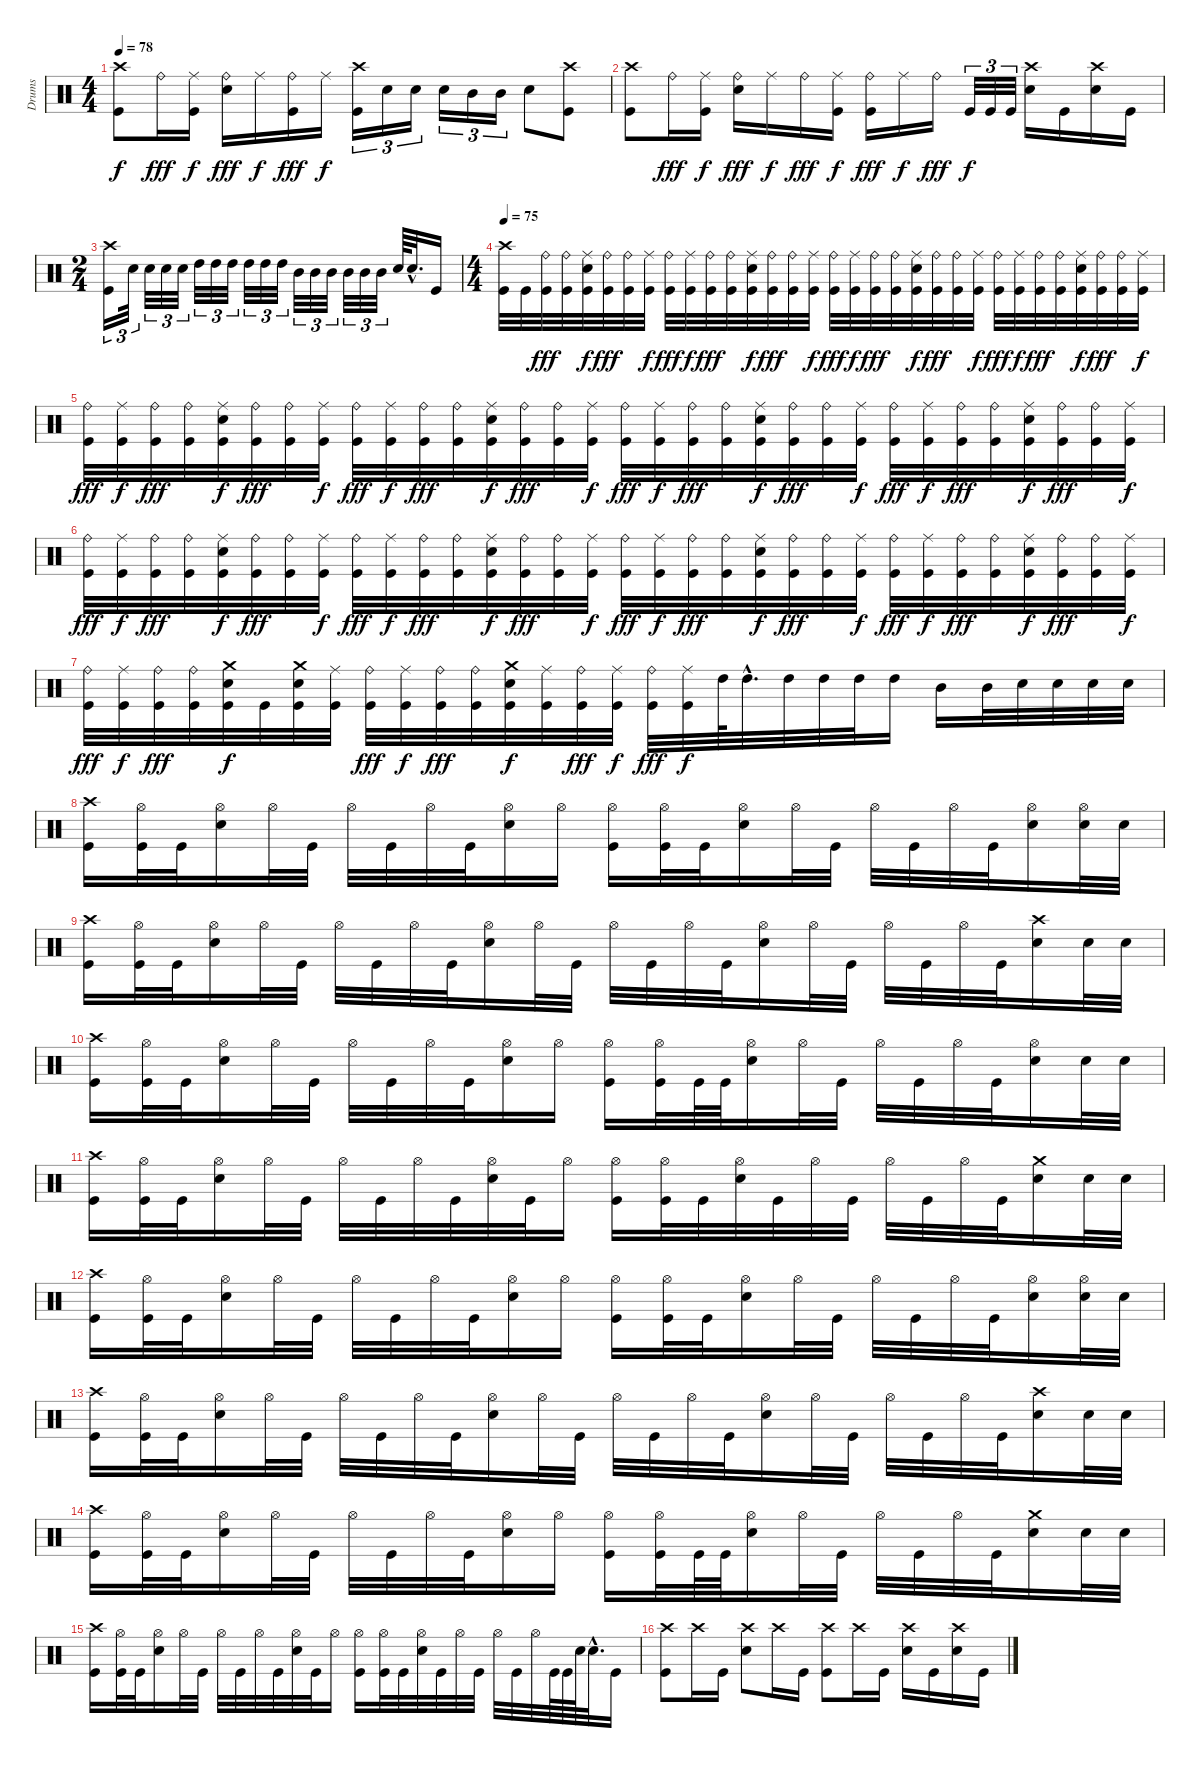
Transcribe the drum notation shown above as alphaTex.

\track ("Drums" "Drums") {instrument percussion}
\staff {score}
\articulation defaults
\ts (4 4)
\tempo 78
\clef neutral
\ks c
("Crash high (hit)" "Kick (hit)").8{dy f} "Ride (bell)".16{dy fff} ("Ride (middle)" "Kick (hit)").16{dy f} ("Ride (bell)" "Electric Snare (hit)").16{dy fff} "Ride (middle)".16{dy f} ("Ride (bell)" "Kick (hit)").16{dy fff} "Ride (middle)".16{dy f} ("Crash high (hit)" "Kick (hit)").16{tu (3 2)} "Electric Snare (hit)".16{tu (3 2)} "Electric Snare (hit)".16{tu (3 2)} "Electric Snare (hit)".16{tu (3 2)} "Mid Tom (hit)".16{tu (3 2)} "Mid Tom (hit)".16{tu (3 2)} "Electric Snare (hit)".8 ("Crash high (hit)" "Kick (hit)").8 |
("Crash high (hit)" "Kick (hit)").8 "Ride (bell)".16{dy fff} ("Ride (middle)" "Kick (hit)").16{dy f} ("Ride (bell)" "Electric Snare (hit)").16{dy fff} "Ride (middle)".16{dy f} "Ride (bell)".16{dy fff} ("Ride (middle)" "Kick (hit)").16{dy f} ("Ride (bell)" "Kick (hit)").16{dy fff} "Ride (middle)".16{dy f} "Ride (bell)".16{dy fff} "Kick (hit)".32{tu (3 2) dy f} "Kick (hit)".32{tu (3 2)} "Kick (hit)".32{tu (3 2)} ("Crash high (hit)" "Electric Snare (hit)").16 "Kick (hit)".16 ("Crash high (hit)" "Electric Snare (hit)").16 "Kick (hit)".16 |
\ts (2 4)
("Crash high (hit)" "Kick (hit)").16{tu (3 2)} "Electric Snare (hit)".32{tu (3 2)} "Electric Snare (hit)".32{tu (3 2)} "Electric Snare (hit)".32{tu (3 2)} "Electric Snare (hit)".32{tu (3 2)} "High Tom (hit)".32{tu (3 2)} "High Tom (hit)".32{tu (3 2)} "High Tom (hit)".32{tu (3 2)} "High Tom (hit)".32{tu (3 2)} "High Tom (hit)".32{tu (3 2)} "High Tom (hit)".32{tu (3 2)} "Mid Tom (hit)".32{tu (3 2)} "Mid Tom (hit)".32{tu (3 2)} "Mid Tom (hit)".32{tu (3 2)} "Mid Tom (hit)".32{tu (3 2)} "Mid Tom (hit)".32{tu (3 2)} "Mid Tom (hit)".32{tu (3 2)} "Electric Snare (hit)".64 "Electric Snare (hit)"{hac}.32{d} "Kick (hit)".16 |
\ts (4 4)
\tempo 75
("Crash high (hit)" "Kick (hit)").32 "Kick (hit)".32 ("Ride (bell)" "Kick (hit)").32{dy fff} ("Ride (bell)" "Kick (hit)").32 ("Ride (middle)" "Electric Snare (hit)" "Kick (hit)").32{dy f} ("Ride (bell)" "Kick (hit)").32{dy fff} ("Ride (bell)" "Kick (hit)").32 ("Ride (middle)" "Kick (hit)").32{dy f} ("Ride (bell)" "Kick (hit)").32{dy fff} ("Ride (middle)" "Kick (hit)").32{dy f} ("Ride (bell)" "Kick (hit)").32{dy fff} ("Ride (bell)" "Kick (hit)").32 ("Ride (middle)" "Electric Snare (hit)" "Kick (hit)").32{dy f} ("Ride (bell)" "Kick (hit)").32{dy fff} ("Ride (bell)" "Kick (hit)").32 ("Ride (middle)" "Kick (hit)").32{dy f} ("Ride (bell)" "Kick (hit)").32{dy fff} ("Ride (middle)" "Kick (hit)").32{dy f} ("Ride (bell)" "Kick (hit)").32{dy fff} ("Ride (bell)" "Kick (hit)").32 ("Ride (middle)" "Electric Snare (hit)" "Kick (hit)").32{dy f} ("Ride (bell)" "Kick (hit)").32{dy fff} ("Ride (bell)" "Kick (hit)").32 ("Ride (middle)" "Kick (hit)").32{dy f} ("Ride (bell)" "Kick (hit)").32{dy fff} ("Ride (middle)" "Kick (hit)").32{dy f} ("Ride (bell)" "Kick (hit)").32{dy fff} ("Ride (bell)" "Kick (hit)").32 ("Ride (middle)" "Electric Snare (hit)" "Kick (hit)").32{dy f} ("Ride (bell)" "Kick (hit)").32{dy fff} ("Ride (bell)" "Kick (hit)").32 ("Ride (middle)" "Kick (hit)").32{dy f} |
("Ride (bell)" "Kick (hit)").32{dy fff} ("Ride (middle)" "Kick (hit)").32{dy f} ("Ride (bell)" "Kick (hit)").32{dy fff} ("Ride (bell)" "Kick (hit)").32 ("Ride (middle)" "Electric Snare (hit)" "Kick (hit)").32{dy f} ("Ride (bell)" "Kick (hit)").32{dy fff} ("Ride (bell)" "Kick (hit)").32 ("Ride (middle)" "Kick (hit)").32{dy f} ("Ride (bell)" "Kick (hit)").32{dy fff} ("Ride (middle)" "Kick (hit)").32{dy f} ("Ride (bell)" "Kick (hit)").32{dy fff} ("Ride (bell)" "Kick (hit)").32 ("Ride (middle)" "Electric Snare (hit)" "Kick (hit)").32{dy f} ("Ride (bell)" "Kick (hit)").32{dy fff} ("Ride (bell)" "Kick (hit)").32 ("Ride (middle)" "Kick (hit)").32{dy f} ("Ride (bell)" "Kick (hit)").32{dy fff} ("Ride (middle)" "Kick (hit)").32{dy f} ("Ride (bell)" "Kick (hit)").32{dy fff} ("Ride (bell)" "Kick (hit)").32 ("Ride (middle)" "Electric Snare (hit)" "Kick (hit)").32{dy f} ("Ride (bell)" "Kick (hit)").32{dy fff} ("Ride (bell)" "Kick (hit)").32 ("Ride (middle)" "Kick (hit)").32{dy f} ("Ride (bell)" "Kick (hit)").32{dy fff} ("Ride (middle)" "Kick (hit)").32{dy f} ("Ride (bell)" "Kick (hit)").32{dy fff} ("Ride (bell)" "Kick (hit)").32 ("Ride (middle)" "Electric Snare (hit)" "Kick (hit)").32{dy f} ("Ride (bell)" "Kick (hit)").32{dy fff} ("Ride (bell)" "Kick (hit)").32 ("Ride (middle)" "Kick (hit)").32{dy f} |
("Ride (bell)" "Kick (hit)").32{dy fff} ("Ride (middle)" "Kick (hit)").32{dy f} ("Ride (bell)" "Kick (hit)").32{dy fff} ("Ride (bell)" "Kick (hit)").32 ("Ride (middle)" "Electric Snare (hit)" "Kick (hit)").32{dy f} ("Ride (bell)" "Kick (hit)").32{dy fff} ("Ride (bell)" "Kick (hit)").32 ("Ride (middle)" "Kick (hit)").32{dy f} ("Ride (bell)" "Kick (hit)").32{dy fff} ("Ride (middle)" "Kick (hit)").32{dy f} ("Ride (bell)" "Kick (hit)").32{dy fff} ("Ride (bell)" "Kick (hit)").32 ("Ride (middle)" "Electric Snare (hit)" "Kick (hit)").32{dy f} ("Ride (bell)" "Kick (hit)").32{dy fff} ("Ride (bell)" "Kick (hit)").32 ("Ride (middle)" "Kick (hit)").32{dy f} ("Ride (bell)" "Kick (hit)").32{dy fff} ("Ride (middle)" "Kick (hit)").32{dy f} ("Ride (bell)" "Kick (hit)").32{dy fff} ("Ride (bell)" "Kick (hit)").32 ("Ride (middle)" "Electric Snare (hit)" "Kick (hit)").32{dy f} ("Ride (bell)" "Kick (hit)").32{dy fff} ("Ride (bell)" "Kick (hit)").32 ("Ride (middle)" "Kick (hit)").32{dy f} ("Ride (bell)" "Kick (hit)").32{dy fff} ("Ride (middle)" "Kick (hit)").32{dy f} ("Ride (bell)" "Kick (hit)").32{dy fff} ("Ride (bell)" "Kick (hit)").32 ("Ride (middle)" "Electric Snare (hit)" "Kick (hit)").32{dy f} ("Ride (bell)" "Kick (hit)").32{dy fff} ("Ride (bell)" "Kick (hit)").32 ("Ride (middle)" "Kick (hit)").32{dy f} |
("Ride (bell)" "Kick (hit)").32{dy fff} ("Ride (middle)" "Kick (hit)").32{dy f} ("Ride (bell)" "Kick (hit)").32{dy fff} ("Ride (bell)" "Kick (hit)").32 ("Crash medium (hit)" "Electric Snare (hit)" "Kick (hit)").32{dy f} "Kick (hit)".32 ("Crash medium (hit)" "Electric Snare (hit)" "Kick (hit)").32 ("Ride (middle)" "Kick (hit)").32 ("Ride (bell)" "Kick (hit)").32{dy fff} ("Ride (middle)" "Kick (hit)").32{dy f} ("Ride (bell)" "Kick (hit)").32{dy fff} ("Ride (bell)" "Kick (hit)").32 ("Crash medium (hit)" "Electric Snare (hit)" "Kick (hit)").32{dy f} ("Ride (middle)" "Kick (hit)").32 ("Ride (bell)" "Kick (hit)").32{dy fff} ("Ride (middle)" "Kick (hit)").32{dy f} ("Ride (bell)" "Kick (hit)").32{dy fff} ("Ride (middle)" "Kick (hit)").32{dy f} "High Tom (hit)".64 "High Tom (hit)"{hac}.32{d} "High Tom (hit)".32 "High Tom (hit)".32 "High Tom (hit)".32 "High Tom (hit)".16 "Mid Tom (hit)".16 "Mid Tom (hit)".32 "Electric Snare (hit)".32 "Electric Snare (hit)".32 "Electric Snare (hit)".32 "Electric Snare (hit)".32 |
("Crash high (hit)" "Kick (hit)").16 ("Hi-Hat (open)" "Kick (hit)").32 "Kick (hit)".32 ("Hi-Hat (open)" "Electric Snare (hit)").16 "Hi-Hat (open)".32 "Kick (hit)".32 "Hi-Hat (open)".32 "Kick (hit)".32 "Hi-Hat (open)".32 "Kick (hit)".32 ("Hi-Hat (open)" "Electric Snare (hit)").16 "Hi-Hat (open)".16 ("Hi-Hat (open)" "Kick (hit)").16 ("Hi-Hat (open)" "Kick (hit)").32 "Kick (hit)".32 ("Hi-Hat (open)" "Electric Snare (hit)").16 "Hi-Hat (open)".32 "Kick (hit)".32 "Hi-Hat (open)".32 "Kick (hit)".32 "Hi-Hat (open)".32 "Kick (hit)".32 ("Hi-Hat (open)" "Electric Snare (hit)").16 ("Hi-Hat (open)" "Electric Snare (hit)").32 "Electric Snare (hit)".32 |
("Crash high (hit)" "Kick (hit)").16 ("Hi-Hat (open)" "Kick (hit)").32 "Kick (hit)".32 ("Hi-Hat (open)" "Electric Snare (hit)").16 "Hi-Hat (open)".32 "Kick (hit)".32 "Hi-Hat (open)".32 "Kick (hit)".32 "Hi-Hat (open)".32 "Kick (hit)".32 ("Hi-Hat (open)" "Electric Snare (hit)").16 "Hi-Hat (open)".32 "Kick (hit)".32 "Hi-Hat (open)".32 "Kick (hit)".32 "Hi-Hat (open)".32 "Kick (hit)".32 ("Hi-Hat (open)" "Electric Snare (hit)").16 "Hi-Hat (open)".32 "Kick (hit)".32 "Hi-Hat (open)".32 "Kick (hit)".32 "Hi-Hat (open)".32 "Kick (hit)".32 ("Crash high (hit)" "Electric Snare (hit)").16 "Electric Snare (hit)".32 "Electric Snare (hit)".32 |
("Crash high (hit)" "Kick (hit)").16 ("Hi-Hat (open)" "Kick (hit)").32 "Kick (hit)".32 ("Hi-Hat (open)" "Electric Snare (hit)").16 "Hi-Hat (open)".32 "Kick (hit)".32 "Hi-Hat (open)".32 "Kick (hit)".32 "Hi-Hat (open)".32 "Kick (hit)".32 ("Hi-Hat (open)" "Electric Snare (hit)").16 "Hi-Hat (open)".16 ("Hi-Hat (open)" "Kick (hit)").16 ("Hi-Hat (open)" "Kick (hit)").32 "Kick (hit)".64 "Kick (hit)".64 ("Hi-Hat (open)" "Electric Snare (hit)").16 "Hi-Hat (open)".32 "Kick (hit)".32 "Hi-Hat (open)".32 "Kick (hit)".32 "Hi-Hat (open)".32 "Kick (hit)".32 ("Hi-Hat (open)" "Electric Snare (hit)").16 "Electric Snare (hit)".32 "Electric Snare (hit)".32 |
("Crash high (hit)" "Kick (hit)").16 ("Hi-Hat (open)" "Kick (hit)").32 "Kick (hit)".32 ("Hi-Hat (open)" "Electric Snare (hit)").16 "Hi-Hat (open)".32 "Kick (hit)".32 "Hi-Hat (open)".32 "Kick (hit)".32 "Hi-Hat (open)".32 "Kick (hit)".32 ("Hi-Hat (open)" "Electric Snare (hit)").32 "Kick (hit)".32 "Hi-Hat (open)".16 ("Hi-Hat (open)" "Kick (hit)").16 ("Hi-Hat (open)" "Kick (hit)").32 "Kick (hit)".32 ("Hi-Hat (open)" "Electric Snare (hit)").32 "Kick (hit)".32 "Hi-Hat (open)".32 "Kick (hit)".32 "Hi-Hat (open)".32 "Kick (hit)".32 "Hi-Hat (open)".32 "Kick (hit)".32 ("Crash medium (hit)" "Electric Snare (hit)").16 "Electric Snare (hit)".32 "Electric Snare (hit)".32 |
("Crash high (hit)" "Kick (hit)").16 ("Hi-Hat (open)" "Kick (hit)").32 "Kick (hit)".32 ("Hi-Hat (open)" "Electric Snare (hit)").16 "Hi-Hat (open)".32 "Kick (hit)".32 "Hi-Hat (open)".32 "Kick (hit)".32 "Hi-Hat (open)".32 "Kick (hit)".32 ("Hi-Hat (open)" "Electric Snare (hit)").16 "Hi-Hat (open)".16 ("Hi-Hat (open)" "Kick (hit)").16 ("Hi-Hat (open)" "Kick (hit)").32 "Kick (hit)".32 ("Hi-Hat (open)" "Electric Snare (hit)").16 "Hi-Hat (open)".32 "Kick (hit)".32 "Hi-Hat (open)".32 "Kick (hit)".32 "Hi-Hat (open)".32 "Kick (hit)".32 ("Hi-Hat (open)" "Electric Snare (hit)").16 ("Hi-Hat (open)" "Electric Snare (hit)").32 "Electric Snare (hit)".32 |
("Crash high (hit)" "Kick (hit)").16 ("Hi-Hat (open)" "Kick (hit)").32 "Kick (hit)".32 ("Hi-Hat (open)" "Electric Snare (hit)").16 "Hi-Hat (open)".32 "Kick (hit)".32 "Hi-Hat (open)".32 "Kick (hit)".32 "Hi-Hat (open)".32 "Kick (hit)".32 ("Hi-Hat (open)" "Electric Snare (hit)").16 "Hi-Hat (open)".32 "Kick (hit)".32 "Hi-Hat (open)".32 "Kick (hit)".32 "Hi-Hat (open)".32 "Kick (hit)".32 ("Hi-Hat (open)" "Electric Snare (hit)").16 "Hi-Hat (open)".32 "Kick (hit)".32 "Hi-Hat (open)".32 "Kick (hit)".32 "Hi-Hat (open)".32 "Kick (hit)".32 ("Crash high (hit)" "Electric Snare (hit)").16 "Electric Snare (hit)".32 "Electric Snare (hit)".32 |
("Crash high (hit)" "Kick (hit)").16 ("Hi-Hat (open)" "Kick (hit)").32 "Kick (hit)".32 ("Hi-Hat (open)" "Electric Snare (hit)").16 "Hi-Hat (open)".32 "Kick (hit)".32 "Hi-Hat (open)".32 "Kick (hit)".32 "Hi-Hat (open)".32 "Kick (hit)".32 ("Hi-Hat (open)" "Electric Snare (hit)").16 "Hi-Hat (open)".16 ("Hi-Hat (open)" "Kick (hit)").16 ("Hi-Hat (open)" "Kick (hit)").32 "Kick (hit)".64 "Kick (hit)".64 ("Hi-Hat (open)" "Electric Snare (hit)").16 "Hi-Hat (open)".32 "Kick (hit)".32 "Hi-Hat (open)".32 "Kick (hit)".32 "Hi-Hat (open)".32 "Kick (hit)".32 ("Crash medium (hit)" "Electric Snare (hit)").16 "Electric Snare (hit)".32 "Electric Snare (hit)".32 |
("Crash high (hit)" "Kick (hit)").16 ("Hi-Hat (open)" "Kick (hit)").32 "Kick (hit)".32 ("Hi-Hat (open)" "Electric Snare (hit)").16 "Hi-Hat (open)".32 "Kick (hit)".32 "Hi-Hat (open)".32 "Kick (hit)".32 "Hi-Hat (open)".32 "Kick (hit)".32 ("Hi-Hat (open)" "Electric Snare (hit)").32 "Kick (hit)".32 "Hi-Hat (open)".16 ("Hi-Hat (open)" "Kick (hit)").16 ("Hi-Hat (open)" "Kick (hit)").32 "Kick (hit)".32 ("Hi-Hat (open)" "Electric Snare (hit)").32 "Kick (hit)".32 "Hi-Hat (open)".32 "Kick (hit)".32 "Hi-Hat (open)".32 "Kick (hit)".32 "Hi-Hat (open)".32 "Kick (hit)".64 "Kick (hit)".64 "Electric Snare (hit)".64 "Electric Snare (hit)"{hac}.32{d} "Kick (hit)".16 |
("Crash high (hit)" "Kick (hit)").8 "Crash high (hit)".16 "Kick (hit)".16 ("Crash high (hit)" "Electric Snare (hit)").8 "Crash high (hit)".16 "Kick (hit)".16 ("Crash high (hit)" "Kick (hit)").8 "Crash high (hit)".16 "Kick (hit)".16 ("Crash high (hit)" "Electric Snare (hit)").16 "Kick (hit)".16 ("Crash high (hit)" "Electric Snare (hit)").16 "Kick (hit)".16
